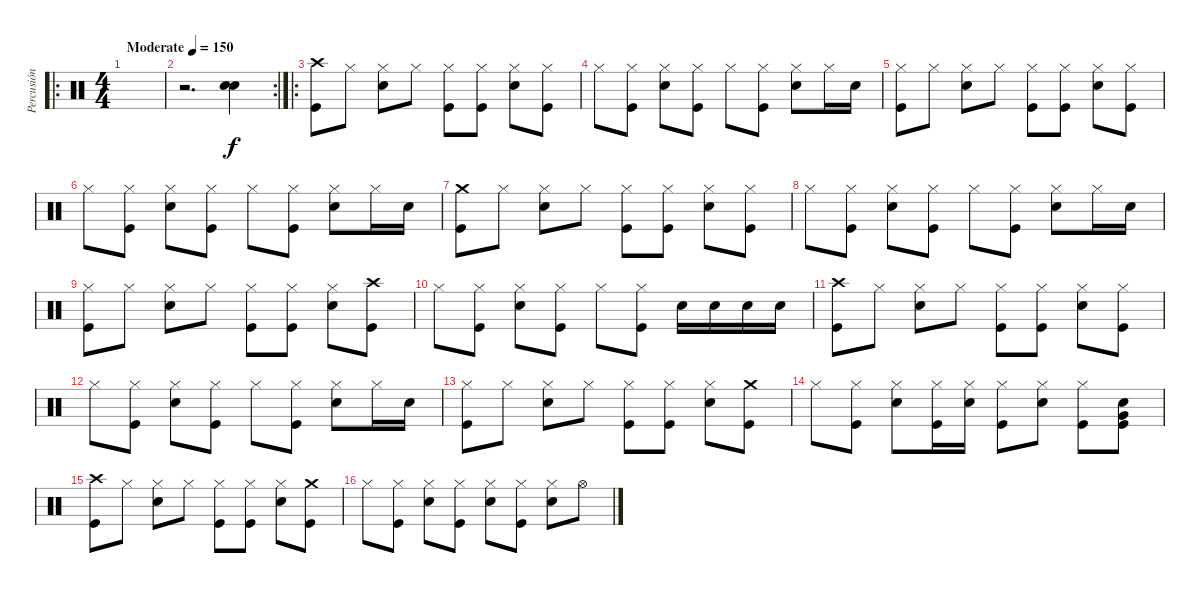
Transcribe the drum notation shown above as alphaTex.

\track ("Percusión" "Percusión") {instrument percussion}
\staff {score}
\articulation defaults
\ro
\ts (4 4)
\tempo (150 "Moderate")
\clef neutral
\ks c
|
\rc 2
r.2{d} ("Snare (hit) 2" "Snare (hit) 2").4 |
\ro
("Crash high (hit)" "Kick (hit)").8 "Hi-Hat (closed)".8 ("Hi-Hat (closed)" "Snare (hit) 2").8 "Hi-Hat (closed)".8 ("Hi-Hat (closed)" "Kick (hit)").8 ("Hi-Hat (closed)" "Kick (hit)").8 ("Hi-Hat (closed)" "Snare (hit) 2").8 ("Hi-Hat (closed)" "Kick (hit)").8 |
"Hi-Hat (closed)".8 ("Hi-Hat (closed)" "Kick (hit)").8 ("Hi-Hat (closed)" "Snare (hit) 2").8 ("Hi-Hat (closed)" "Kick (hit)").8 "Hi-Hat (closed)".8 ("Hi-Hat (closed)" "Kick (hit)").8 ("Hi-Hat (closed)" "Snare (hit) 2").8 "Hi-Hat (closed)".16 "Snare (hit) 2".16 |
("Hi-Hat (closed)" "Kick (hit)").8 "Hi-Hat (closed)".8 ("Hi-Hat (closed)" "Snare (hit) 2").8 "Hi-Hat (closed)".8 ("Hi-Hat (closed)" "Kick (hit)").8 ("Hi-Hat (closed)" "Kick (hit)").8 ("Hi-Hat (closed)" "Snare (hit) 2").8 ("Hi-Hat (closed)" "Kick (hit)").8 |
"Hi-Hat (closed)".8 ("Hi-Hat (closed)" "Kick (hit)").8 ("Hi-Hat (closed)" "Snare (hit) 2").8 ("Hi-Hat (closed)" "Kick (hit)").8 "Hi-Hat (closed)".8 ("Hi-Hat (closed)" "Kick (hit)").8 ("Hi-Hat (closed)" "Snare (hit) 2").8 "Hi-Hat (closed)".16 "Snare (hit) 2".16 |
("Crash medium (hit)" "Kick (hit)").8 "Hi-Hat (closed)".8 ("Hi-Hat (closed)" "Snare (hit) 2").8 "Hi-Hat (closed)".8 ("Hi-Hat (closed)" "Kick (hit)").8 ("Hi-Hat (closed)" "Kick (hit)").8 ("Hi-Hat (closed)" "Snare (hit) 2").8 ("Hi-Hat (closed)" "Kick (hit)").8 |
"Hi-Hat (closed)".8 ("Hi-Hat (closed)" "Kick (hit)").8 ("Hi-Hat (closed)" "Snare (hit) 2").8 ("Hi-Hat (closed)" "Kick (hit)").8 "Hi-Hat (closed)".8 ("Hi-Hat (closed)" "Kick (hit)").8 ("Hi-Hat (closed)" "Snare (hit) 2").8 "Hi-Hat (closed)".16 "Snare (hit) 2".16 |
("Hi-Hat (closed)" "Kick (hit)").8 "Hi-Hat (closed)".8 ("Hi-Hat (closed)" "Snare (hit) 2").8 "Hi-Hat (closed)".8 ("Hi-Hat (closed)" "Kick (hit)").8 ("Hi-Hat (closed)" "Kick (hit)").8 ("Hi-Hat (closed)" "Snare (hit) 2").8 ("Crash high (hit)" "Kick (hit)").8 |
"Hi-Hat (closed)".8 ("Hi-Hat (closed)" "Kick (hit)").8 ("Hi-Hat (closed)" "Snare (hit) 2").8 ("Hi-Hat (closed)" "Kick (hit)").8 "Hi-Hat (closed)".8 ("Hi-Hat (closed)" "Kick (hit)").8 "Snare (hit) 2".16 "Snare (hit) 2".16 "Snare (hit) 2".16 "Snare (hit) 2".16 |
("Crash high (hit)" "Kick (hit)").8 "Hi-Hat (closed)".8 ("Hi-Hat (closed)" "Snare (hit) 2").8 "Hi-Hat (closed)".8 ("Hi-Hat (closed)" "Kick (hit)").8 ("Hi-Hat (closed)" "Kick (hit)").8 ("Hi-Hat (closed)" "Snare (hit) 2").8 ("Hi-Hat (closed)" "Kick (hit)").8 |
"Hi-Hat (closed)".8 ("Hi-Hat (closed)" "Kick (hit)").8 ("Hi-Hat (closed)" "Snare (hit) 2").8 ("Hi-Hat (closed)" "Kick (hit)").8 "Hi-Hat (closed)".8 ("Hi-Hat (closed)" "Kick (hit)").8 ("Hi-Hat (closed)" "Snare (hit) 2").8 "Hi-Hat (closed)".16 "Snare (hit) 2".16 |
("Hi-Hat (closed)" "Kick (hit)").8 "Hi-Hat (closed)".8 ("Hi-Hat (closed)" "Snare (hit) 2").8 "Hi-Hat (closed)".8 ("Hi-Hat (closed)" "Kick (hit)").8 ("Hi-Hat (closed)" "Kick (hit)").8 ("Hi-Hat (closed)" "Snare (hit) 2").8 ("Crash medium (hit)" "Kick (hit)").8 |
"Hi-Hat (closed)".8 ("Hi-Hat (closed)" "Kick (hit)").8 ("Hi-Hat (closed)" "Snare (hit) 2").8 ("Hi-Hat (closed)" "Kick (hit)").16 ("Hi-Hat (closed)" "Snare (hit) 2").16 ("Hi-Hat (closed)" "Kick (hit)").8 ("Hi-Hat (closed)" "Snare (hit) 2").8 ("Hi-Hat (closed)" "Kick (hit)").8 ("Very Low Tom (hit)" "Snare (hit) 2" "Kick (hit)").8 |
("Crash high (hit)" "Kick (hit)").8 "Hi-Hat (closed)".8 ("Hi-Hat (closed)" "Snare (hit) 2").8 "Hi-Hat (closed)".8 ("Hi-Hat (closed)" "Kick (hit)").8 ("Hi-Hat (closed)" "Kick (hit)").8 ("Hi-Hat (closed)" "Snare (hit) 2").8 ("Crash medium (hit)" "Kick (hit)").8 |
"Hi-Hat (closed)".8 ("Hi-Hat (closed)" "Kick (hit)").8 ("Hi-Hat (closed)" "Snare (hit) 2").8 ("Hi-Hat (closed)" "Kick (hit)").8 ("Hi-Hat (closed)" "Snare (hit) 2").8 ("Hi-Hat (closed)" "Kick (hit)").8 ("Hi-Hat (closed)" "Snare (hit) 2").8 "Hi-Hat (open)".8
